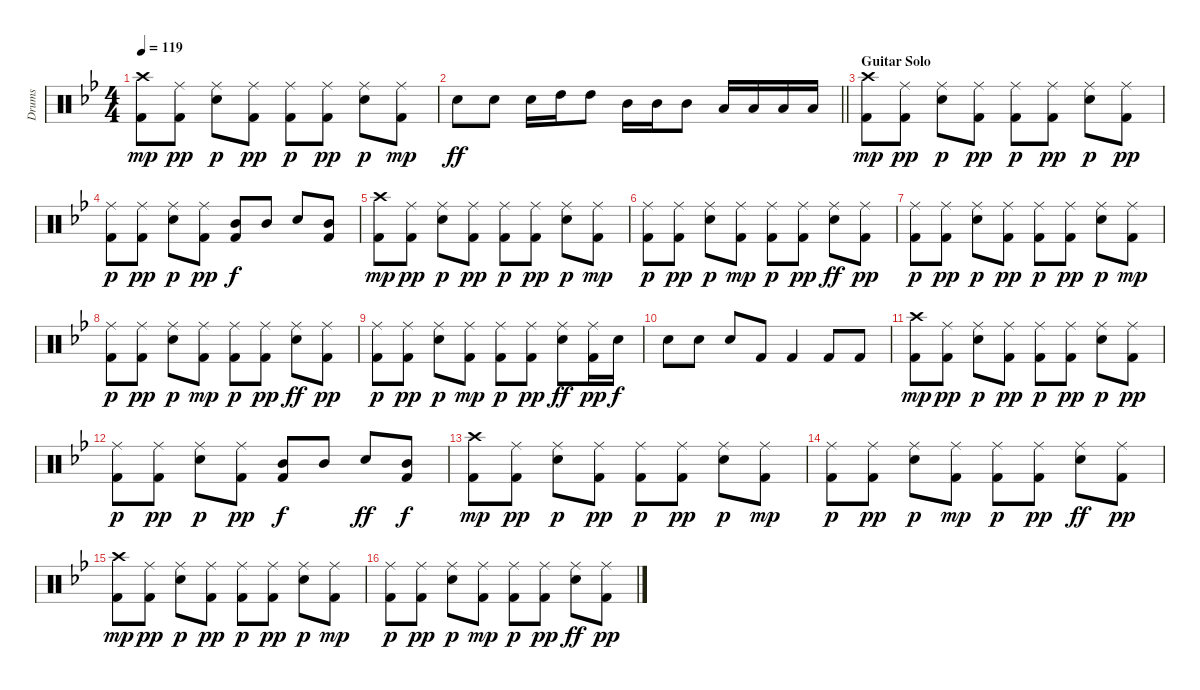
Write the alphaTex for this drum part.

\track ("Drums" "Drums") {instrument percussion}
\staff {score}
\articulation defaults
\ts (4 4)
\tempo 119
\clef neutral
\ks bb
("Crash high (hit)" "Kick (hit) 2").8{dy mp} ("Ride (middle)" "Kick (hit) 2").8{dy pp} ("Ride (middle)" "Electric Snare (hit)").8{dy p} ("Ride (middle)" "Kick (hit) 2").8{dy pp} ("Ride (middle)" "Kick (hit) 2").8{dy p} ("Ride (middle)" "Kick (hit) 2").8{dy pp} ("Ride (middle)" "Electric Snare (hit)").8{dy p} ("Ride (middle)" "Kick (hit) 2").8{dy mp} |
\barLineRight lightlight "Electric Snare (hit)".8{dy ff} "Electric Snare (hit)".8 "Electric Snare (hit)".16 "High Tom (hit)".16 "High Tom (hit)".8 "Mid Tom (hit)".16 "Mid Tom (hit)".16 "Mid Tom (hit)".8 "Low Tom (hit)".16 "Low Tom (hit)".16 "Low Tom (hit)".16 "Low Tom (hit)".16
|
\section ("" "Guitar Solo")
("Crash high (hit)" "Kick (hit) 2").8{dy mp} ("Ride (middle)" "Kick (hit) 2").8{dy pp} ("Ride (middle)" "Electric Snare (hit)").8{dy p} ("Ride (middle)" "Kick (hit) 2").8{dy pp} ("Ride (middle)" "Kick (hit) 2").8{dy p} ("Ride (middle)" "Kick (hit) 2").8{dy pp} ("Ride (middle)" "Electric Snare (hit)").8{dy p} ("Ride (middle)" "Kick (hit) 2").8{dy pp} |
("Ride (middle)" "Kick (hit) 2").8{dy p} ("Ride (middle)" "Kick (hit) 2").8{dy pp} ("Ride (middle)" "Electric Snare (hit)").8{dy p} ("Ride (middle)" "Kick (hit) 2").8{dy pp} ("Mid Tom (hit)" "Kick (hit) 2").8{dy f} "Mid Tom (hit)".8 "Electric Snare (hit)".8 ("Kick (hit) 2" "Mid Tom (hit)").8 |
("Crash high (hit)" "Kick (hit) 2").8{dy mp} ("Ride (middle)" "Kick (hit) 2").8{dy pp} ("Ride (middle)" "Electric Snare (hit)").8{dy p} ("Ride (middle)" "Kick (hit) 2").8{dy pp} ("Ride (middle)" "Kick (hit) 2").8{dy p} ("Ride (middle)" "Kick (hit) 2").8{dy pp} ("Ride (middle)" "Electric Snare (hit)").8{dy p} ("Ride (middle)" "Kick (hit) 2").8{dy mp} |
("Ride (middle)" "Kick (hit) 2").8{dy p} ("Ride (middle)" "Kick (hit) 2").8{dy pp} ("Ride (middle)" "Electric Snare (hit)").8{dy p} ("Ride (middle)" "Kick (hit) 2").8{dy mp} ("Ride (middle)" "Kick (hit) 2").8{dy p} ("Ride (middle)" "Kick (hit) 2").8{dy pp} ("Ride (middle)" "Electric Snare (hit)").8{dy ff} ("Ride (middle)" "Kick (hit) 2").8{dy pp} |
("Ride (middle)" "Kick (hit) 2").8{dy p} ("Ride (middle)" "Kick (hit) 2").8{dy pp} ("Ride (middle)" "Electric Snare (hit)").8{dy p} ("Ride (middle)" "Kick (hit) 2").8{dy pp} ("Ride (middle)" "Kick (hit) 2").8{dy p} ("Ride (middle)" "Kick (hit) 2").8{dy pp} ("Ride (middle)" "Electric Snare (hit)").8{dy p} ("Ride (middle)" "Kick (hit) 2").8{dy mp} |
("Ride (middle)" "Kick (hit) 2").8{dy p} ("Ride (middle)" "Kick (hit) 2").8{dy pp} ("Ride (middle)" "Electric Snare (hit)").8{dy p} ("Ride (middle)" "Kick (hit) 2").8{dy mp} ("Ride (middle)" "Kick (hit) 2").8{dy p} ("Ride (middle)" "Kick (hit) 2").8{dy pp} ("Ride (middle)" "Electric Snare (hit)").8{dy ff} ("Ride (middle)" "Kick (hit) 2").8{dy pp} |
("Ride (middle)" "Kick (hit) 2").8{dy p} ("Ride (middle)" "Kick (hit) 2").8{dy pp} ("Ride (middle)" "Electric Snare (hit)").8{dy p} ("Ride (middle)" "Kick (hit) 2").8{dy mp} ("Ride (middle)" "Kick (hit) 2").8{dy p} ("Ride (middle)" "Kick (hit) 2").8{dy pp} ("Ride (middle)" "Electric Snare (hit)").8{dy ff} ("Ride (middle)" "Kick (hit) 2").16{dy pp} "Electric Snare (hit)".16{dy f} |
"Electric Snare (hit)".8 "Electric Snare (hit)".8 "Electric Snare (hit)".8 "Kick (hit) 2".8 "Kick (hit) 2".4 "Kick (hit) 2".8 "Kick (hit) 2".8 |
("Crash high (hit)" "Kick (hit) 2").8{dy mp} ("Ride (middle)" "Kick (hit) 2").8{dy pp} ("Ride (middle)" "Electric Snare (hit)").8{dy p} ("Ride (middle)" "Kick (hit) 2").8{dy pp} ("Ride (middle)" "Kick (hit) 2").8{dy p} ("Ride (middle)" "Kick (hit) 2").8{dy pp} ("Ride (middle)" "Electric Snare (hit)").8{dy p} ("Ride (middle)" "Kick (hit) 2").8{dy pp} |
("Ride (middle)" "Kick (hit) 2").8{dy p} ("Ride (middle)" "Kick (hit) 2").8{dy pp} ("Ride (middle)" "Electric Snare (hit)").8{dy p} ("Ride (middle)" "Kick (hit) 2").8{dy pp} ("Mid Tom (hit)" "Kick (hit) 2").8{dy f} "Mid Tom (hit)".8 "Electric Snare (hit)".8{dy ff} ("Kick (hit) 2" "Mid Tom (hit)").8{dy f} |
("Crash high (hit)" "Kick (hit) 2").8{dy mp} ("Ride (middle)" "Kick (hit) 2").8{dy pp} ("Ride (middle)" "Electric Snare (hit)").8{dy p} ("Ride (middle)" "Kick (hit) 2").8{dy pp} ("Ride (middle)" "Kick (hit) 2").8{dy p} ("Ride (middle)" "Kick (hit) 2").8{dy pp} ("Ride (middle)" "Electric Snare (hit)").8{dy p} ("Ride (middle)" "Kick (hit) 2").8{dy mp} |
("Ride (middle)" "Kick (hit) 2").8{dy p} ("Ride (middle)" "Kick (hit) 2").8{dy pp} ("Ride (middle)" "Electric Snare (hit)").8{dy p} ("Ride (middle)" "Kick (hit) 2").8{dy mp} ("Ride (middle)" "Kick (hit) 2").8{dy p} ("Ride (middle)" "Kick (hit) 2").8{dy pp} ("Ride (middle)" "Electric Snare (hit)").8{dy ff} ("Ride (middle)" "Kick (hit) 2").8{dy pp} |
("Crash high (hit)" "Kick (hit) 2").8{dy mp} ("Ride (middle)" "Kick (hit) 2").8{dy pp} ("Ride (middle)" "Electric Snare (hit)").8{dy p} ("Ride (middle)" "Kick (hit) 2").8{dy pp} ("Ride (middle)" "Kick (hit) 2").8{dy p} ("Ride (middle)" "Kick (hit) 2").8{dy pp} ("Ride (middle)" "Electric Snare (hit)").8{dy p} ("Ride (middle)" "Kick (hit) 2").8{dy mp} |
("Ride (middle)" "Kick (hit) 2").8{dy p} ("Ride (middle)" "Kick (hit) 2").8{dy pp} ("Ride (middle)" "Electric Snare (hit)").8{dy p} ("Ride (middle)" "Kick (hit) 2").8{dy mp} ("Ride (middle)" "Kick (hit) 2").8{dy p} ("Ride (middle)" "Kick (hit) 2").8{dy pp} ("Ride (middle)" "Electric Snare (hit)").8{dy ff} ("Ride (middle)" "Kick (hit) 2").8{dy pp}
